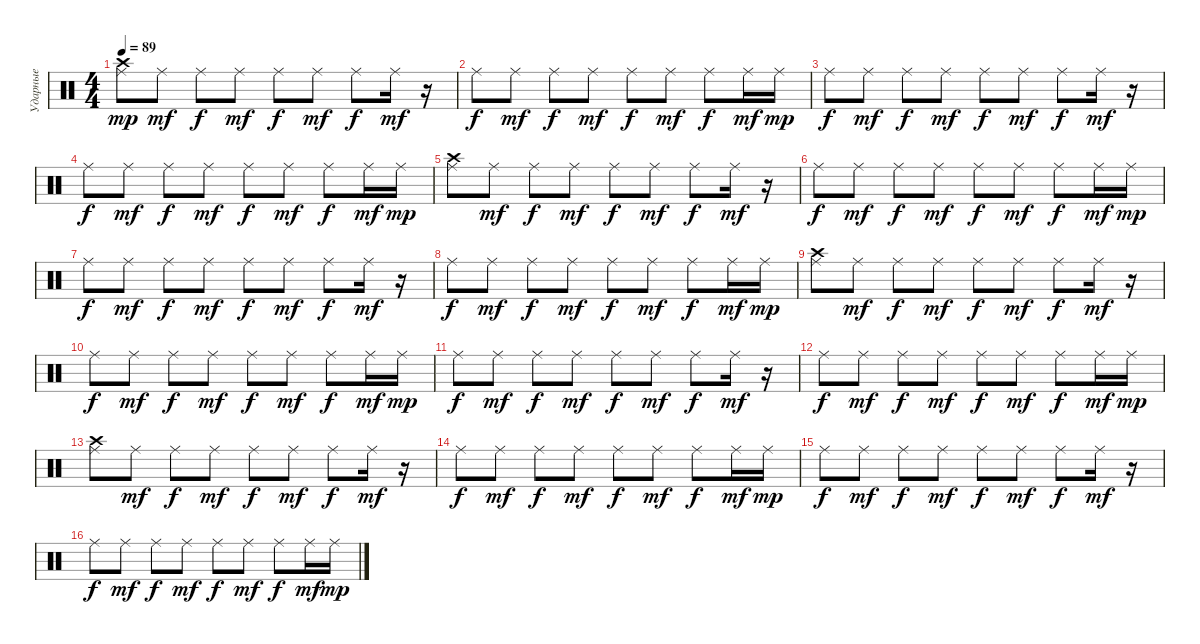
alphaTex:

\track ("Ударные" "Ударные") {instrument percussion}
\staff {score}
\articulation defaults
\ts (4 4)
\tempo 89
\clef neutral
\ks c
("Ride (middle)" "Crash high (hit)").8{dy mp} "Ride (middle)".8{dy mf} "Ride (middle)".8{dy f} "Ride (middle)".8{dy mf} "Ride (middle)".8{dy f} "Ride (middle)".8{dy mf} "Ride (middle)".8{dy f} "Ride (middle)".16{dy mf} r.16 |
"Ride (middle)".8{dy f} "Ride (middle)".8{dy mf} "Ride (middle)".8{dy f} "Ride (middle)".8{dy mf} "Ride (middle)".8{dy f} "Ride (middle)".8{dy mf} "Ride (middle)".8{dy f} "Ride (middle)".16{dy mf} "Ride (middle)".16{dy mp} |
"Ride (middle)".8{dy f} "Ride (middle)".8{dy mf} "Ride (middle)".8{dy f} "Ride (middle)".8{dy mf} "Ride (middle)".8{dy f} "Ride (middle)".8{dy mf} "Ride (middle)".8{dy f} "Ride (middle)".16{dy mf} r.16 |
"Ride (middle)".8{dy f} "Ride (middle)".8{dy mf} "Ride (middle)".8{dy f} "Ride (middle)".8{dy mf} "Ride (middle)".8{dy f} "Ride (middle)".8{dy mf} "Ride (middle)".8{dy f} "Ride (middle)".16{dy mf} "Ride (middle)".16{dy mp} |
("Ride (middle)" "Crash high (hit)").8 "Ride (middle)".8{dy mf} "Ride (middle)".8{dy f} "Ride (middle)".8{dy mf} "Ride (middle)".8{dy f} "Ride (middle)".8{dy mf} "Ride (middle)".8{dy f} "Ride (middle)".16{dy mf} r.16 |
"Ride (middle)".8{dy f} "Ride (middle)".8{dy mf} "Ride (middle)".8{dy f} "Ride (middle)".8{dy mf} "Ride (middle)".8{dy f} "Ride (middle)".8{dy mf} "Ride (middle)".8{dy f} "Ride (middle)".16{dy mf} "Ride (middle)".16{dy mp} |
"Ride (middle)".8{dy f} "Ride (middle)".8{dy mf} "Ride (middle)".8{dy f} "Ride (middle)".8{dy mf} "Ride (middle)".8{dy f} "Ride (middle)".8{dy mf} "Ride (middle)".8{dy f} "Ride (middle)".16{dy mf} r.16 |
"Ride (middle)".8{dy f} "Ride (middle)".8{dy mf} "Ride (middle)".8{dy f} "Ride (middle)".8{dy mf} "Ride (middle)".8{dy f} "Ride (middle)".8{dy mf} "Ride (middle)".8{dy f} "Ride (middle)".16{dy mf} "Ride (middle)".16{dy mp} |
("Ride (middle)" "Crash high (hit)").8 "Ride (middle)".8{dy mf} "Ride (middle)".8{dy f} "Ride (middle)".8{dy mf} "Ride (middle)".8{dy f} "Ride (middle)".8{dy mf} "Ride (middle)".8{dy f} "Ride (middle)".16{dy mf} r.16 |
"Ride (middle)".8{dy f} "Ride (middle)".8{dy mf} "Ride (middle)".8{dy f} "Ride (middle)".8{dy mf} "Ride (middle)".8{dy f} "Ride (middle)".8{dy mf} "Ride (middle)".8{dy f} "Ride (middle)".16{dy mf} "Ride (middle)".16{dy mp} |
"Ride (middle)".8{dy f} "Ride (middle)".8{dy mf} "Ride (middle)".8{dy f} "Ride (middle)".8{dy mf} "Ride (middle)".8{dy f} "Ride (middle)".8{dy mf} "Ride (middle)".8{dy f} "Ride (middle)".16{dy mf} r.16 |
"Ride (middle)".8{dy f} "Ride (middle)".8{dy mf} "Ride (middle)".8{dy f} "Ride (middle)".8{dy mf} "Ride (middle)".8{dy f} "Ride (middle)".8{dy mf} "Ride (middle)".8{dy f} "Ride (middle)".16{dy mf} "Ride (middle)".16{dy mp} |
("Ride (middle)" "Crash high (hit)").8 "Ride (middle)".8{dy mf} "Ride (middle)".8{dy f} "Ride (middle)".8{dy mf} "Ride (middle)".8{dy f} "Ride (middle)".8{dy mf} "Ride (middle)".8{dy f} "Ride (middle)".16{dy mf} r.16 |
"Ride (middle)".8{dy f} "Ride (middle)".8{dy mf} "Ride (middle)".8{dy f} "Ride (middle)".8{dy mf} "Ride (middle)".8{dy f} "Ride (middle)".8{dy mf} "Ride (middle)".8{dy f} "Ride (middle)".16{dy mf} "Ride (middle)".16{dy mp} |
"Ride (middle)".8{dy f} "Ride (middle)".8{dy mf} "Ride (middle)".8{dy f} "Ride (middle)".8{dy mf} "Ride (middle)".8{dy f} "Ride (middle)".8{dy mf} "Ride (middle)".8{dy f} "Ride (middle)".16{dy mf} r.16 |
"Ride (middle)".8{dy f} "Ride (middle)".8{dy mf} "Ride (middle)".8{dy f} "Ride (middle)".8{dy mf} "Ride (middle)".8{dy f} "Ride (middle)".8{dy mf} "Ride (middle)".8{dy f} "Ride (middle)".16{dy mf} "Ride (middle)".16{dy mp}
